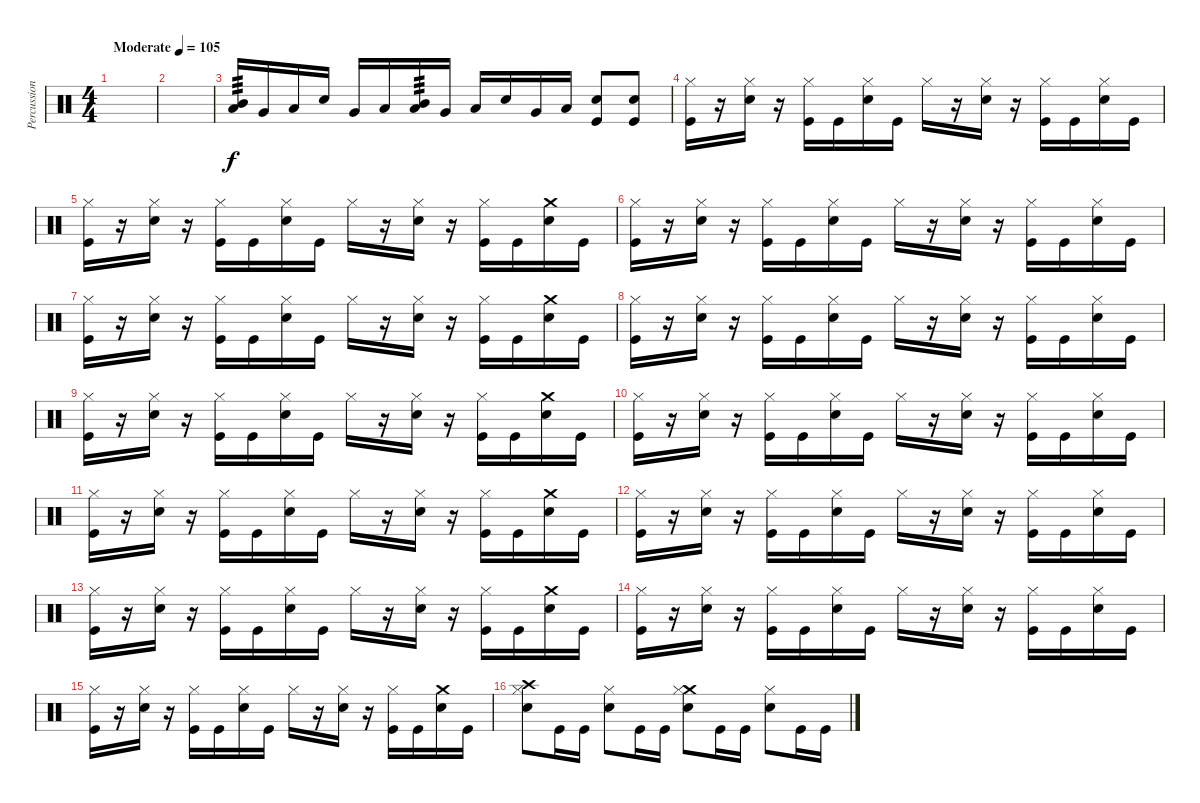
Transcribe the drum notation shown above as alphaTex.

\track ("Percussion" "Percussion") {instrument percussion}
\staff {score}
\articulation defaults
\ts (4 4)
\tempo (105 "Moderate")
\clef neutral
\ks c
|
|
("Low Tom (hit)" "Mid Tom (hit)").16{tp 3} "Very Low Tom (hit)".16 "Low Floor Tom (hit)".16 "Snare (hit) 2".16 "Very Low Tom (hit)".16 "Low Floor Tom (hit)".16 ("Low Tom (hit)" "Mid Tom (hit)").16{tp 3} "Very Low Tom (hit)".16 "Low Floor Tom (hit)".16 "Snare (hit) 2".16 "Very Low Tom (hit)".16 "Low Floor Tom (hit)".16 ("Snare (hit) 2" "Kick (hit)").8 ("Snare (hit) 2" "Kick (hit)").8 |
("Hi-Hat (closed)" "Kick (hit)").16 r.16 ("Hi-Hat (closed)" "Snare (hit) 2").16 r.16 ("Hi-Hat (closed)" "Kick (hit)").16 "Kick (hit)".16 ("Hi-Hat (closed)" "Snare (hit) 2").16 "Kick (hit)".16 "Hi-Hat (closed)".16 r.16 ("Hi-Hat (closed)" "Snare (hit) 2").16 r.16 ("Hi-Hat (closed)" "Kick (hit)").16 "Kick (hit)".16 ("Hi-Hat (closed)" "Snare (hit) 2").16 "Kick (hit)".16 |
("Hi-Hat (closed)" "Kick (hit)").16 r.16 ("Hi-Hat (closed)" "Snare (hit) 2").16 r.16 ("Hi-Hat (closed)" "Kick (hit)").16 "Kick (hit)".16 ("Hi-Hat (closed)" "Snare (hit) 2").16 "Kick (hit)".16 "Hi-Hat (closed)".16 r.16 ("Hi-Hat (closed)" "Snare (hit) 2").16 r.16 ("Hi-Hat (closed)" "Kick (hit)").16 "Kick (hit)".16 ("Crash medium (hit)" "Snare (hit) 2").16 "Kick (hit)".16 |
("Hi-Hat (closed)" "Kick (hit)").16 r.16 ("Hi-Hat (closed)" "Snare (hit) 2").16 r.16 ("Hi-Hat (closed)" "Kick (hit)").16 "Kick (hit)".16 ("Hi-Hat (closed)" "Snare (hit) 2").16 "Kick (hit)".16 "Hi-Hat (closed)".16 r.16 ("Hi-Hat (closed)" "Snare (hit) 2").16 r.16 ("Hi-Hat (closed)" "Kick (hit)").16 "Kick (hit)".16 ("Hi-Hat (closed)" "Snare (hit) 2").16 "Kick (hit)".16 |
("Hi-Hat (closed)" "Kick (hit)").16 r.16 ("Hi-Hat (closed)" "Snare (hit) 2").16 r.16 ("Hi-Hat (closed)" "Kick (hit)").16 "Kick (hit)".16 ("Hi-Hat (closed)" "Snare (hit) 2").16 "Kick (hit)".16 "Hi-Hat (closed)".16 r.16 ("Hi-Hat (closed)" "Snare (hit) 2").16 r.16 ("Hi-Hat (closed)" "Kick (hit)").16 "Kick (hit)".16 ("Crash medium (hit)" "Snare (hit) 2").16 "Kick (hit)".16 |
("Hi-Hat (closed)" "Kick (hit)").16 r.16 ("Hi-Hat (closed)" "Snare (hit) 2").16 r.16 ("Hi-Hat (closed)" "Kick (hit)").16 "Kick (hit)".16 ("Hi-Hat (closed)" "Snare (hit) 2").16 "Kick (hit)".16 "Hi-Hat (closed)".16 r.16 ("Hi-Hat (closed)" "Snare (hit) 2").16 r.16 ("Hi-Hat (closed)" "Kick (hit)").16 "Kick (hit)".16 ("Hi-Hat (closed)" "Snare (hit) 2").16 "Kick (hit)".16 |
("Hi-Hat (closed)" "Kick (hit)").16 r.16 ("Hi-Hat (closed)" "Snare (hit) 2").16 r.16 ("Hi-Hat (closed)" "Kick (hit)").16 "Kick (hit)".16 ("Hi-Hat (closed)" "Snare (hit) 2").16 "Kick (hit)".16 "Hi-Hat (closed)".16 r.16 ("Hi-Hat (closed)" "Snare (hit) 2").16 r.16 ("Hi-Hat (closed)" "Kick (hit)").16 "Kick (hit)".16 ("Crash medium (hit)" "Snare (hit) 2").16 "Kick (hit)".16 |
("Hi-Hat (closed)" "Kick (hit)").16 r.16 ("Hi-Hat (closed)" "Snare (hit) 2").16 r.16 ("Hi-Hat (closed)" "Kick (hit)").16 "Kick (hit)".16 ("Hi-Hat (closed)" "Snare (hit) 2").16 "Kick (hit)".16 "Hi-Hat (closed)".16 r.16 ("Hi-Hat (closed)" "Snare (hit) 2").16 r.16 ("Hi-Hat (closed)" "Kick (hit)").16 "Kick (hit)".16 ("Hi-Hat (closed)" "Snare (hit) 2").16 "Kick (hit)".16 |
("Hi-Hat (closed)" "Kick (hit)").16 r.16 ("Hi-Hat (closed)" "Snare (hit) 2").16 r.16 ("Hi-Hat (closed)" "Kick (hit)").16 "Kick (hit)".16 ("Hi-Hat (closed)" "Snare (hit) 2").16 "Kick (hit)".16 "Hi-Hat (closed)".16 r.16 ("Hi-Hat (closed)" "Snare (hit) 2").16 r.16 ("Hi-Hat (closed)" "Kick (hit)").16 "Kick (hit)".16 ("Crash medium (hit)" "Snare (hit) 2").16 "Kick (hit)".16 |
("Hi-Hat (closed)" "Kick (hit)").16 r.16 ("Hi-Hat (closed)" "Snare (hit) 2").16 r.16 ("Hi-Hat (closed)" "Kick (hit)").16 "Kick (hit)".16 ("Hi-Hat (closed)" "Snare (hit) 2").16 "Kick (hit)".16 "Hi-Hat (closed)".16 r.16 ("Hi-Hat (closed)" "Snare (hit) 2").16 r.16 ("Hi-Hat (closed)" "Kick (hit)").16 "Kick (hit)".16 ("Hi-Hat (closed)" "Snare (hit) 2").16 "Kick (hit)".16 |
("Hi-Hat (closed)" "Kick (hit)").16 r.16 ("Hi-Hat (closed)" "Snare (hit) 2").16 r.16 ("Hi-Hat (closed)" "Kick (hit)").16 "Kick (hit)".16 ("Hi-Hat (closed)" "Snare (hit) 2").16 "Kick (hit)".16 "Hi-Hat (closed)".16 r.16 ("Hi-Hat (closed)" "Snare (hit) 2").16 r.16 ("Hi-Hat (closed)" "Kick (hit)").16 "Kick (hit)".16 ("Crash medium (hit)" "Snare (hit) 2").16 "Kick (hit)".16 |
("Hi-Hat (closed)" "Kick (hit)").16 r.16 ("Hi-Hat (closed)" "Snare (hit) 2").16 r.16 ("Hi-Hat (closed)" "Kick (hit)").16 "Kick (hit)".16 ("Hi-Hat (closed)" "Snare (hit) 2").16 "Kick (hit)".16 "Hi-Hat (closed)".16 r.16 ("Hi-Hat (closed)" "Snare (hit) 2").16 r.16 ("Hi-Hat (closed)" "Kick (hit)").16 "Kick (hit)".16 ("Hi-Hat (closed)" "Snare (hit) 2").16 "Kick (hit)".16 |
("Hi-Hat (closed)" "Kick (hit)").16 r.16 ("Hi-Hat (closed)" "Snare (hit) 2").16 r.16 ("Hi-Hat (closed)" "Kick (hit)").16 "Kick (hit)".16 ("Hi-Hat (closed)" "Snare (hit) 2").16 "Kick (hit)".16 "Hi-Hat (closed)".16 r.16 ("Hi-Hat (closed)" "Snare (hit) 2").16 r.16 ("Hi-Hat (closed)" "Kick (hit)").16 "Kick (hit)".16 ("Crash medium (hit)" "Snare (hit) 2").16 "Kick (hit)".16 |
("Crash high (hit)" "Hi-Hat (closed)" "Snare (hit) 2").8 "Kick (hit)".16 "Kick (hit)".16 ("Hi-Hat (closed)" "Snare (hit) 2").8 "Kick (hit)".16 "Kick (hit)".16 ("Crash medium (hit)" "Hi-Hat (closed)" "Snare (hit) 2").8 "Kick (hit)".16 "Kick (hit)".16 ("Hi-Hat (closed)" "Snare (hit) 2").8 "Kick (hit)".16 "Kick (hit)".16
